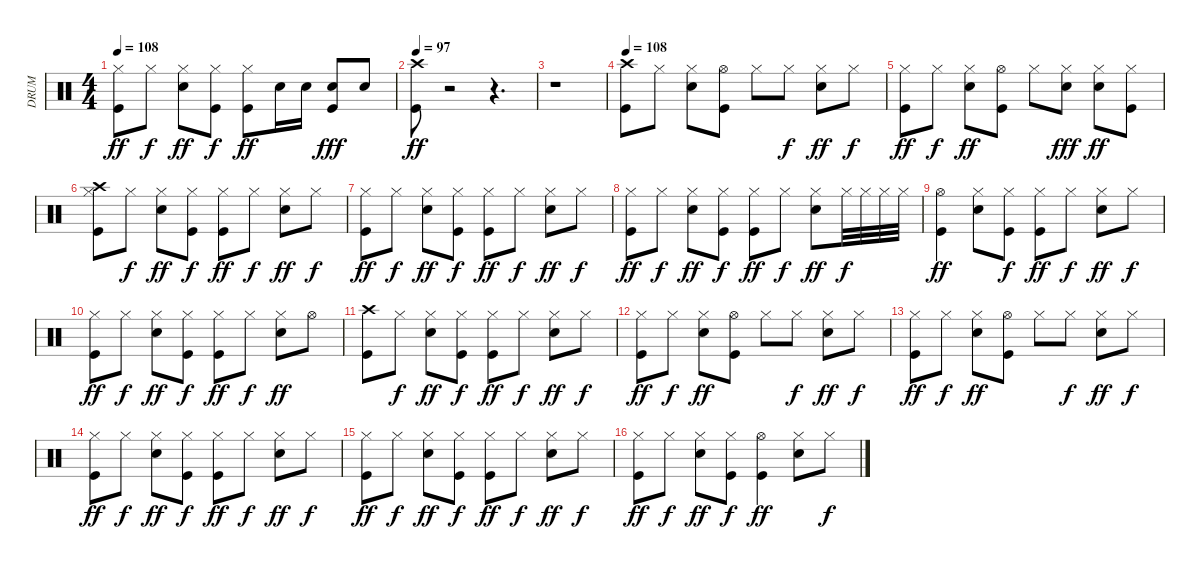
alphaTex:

\track ("DRUM" "DRUM") {instrument percussion}
\staff {score}
\articulation defaults
\ts (4 4)
\tempo 108
\clef neutral
\ks c
("Kick (hit)" "Hi-Hat (closed)").8{dy ff} "Hi-Hat (closed)".8{dy f} ("Electric Snare (hit)" "Hi-Hat (closed)").8{dy ff} ("Kick (hit)" "Hi-Hat (closed)").8{dy f} ("Kick (hit)" "Hi-Hat (closed)").8{dy ff} "Electric Snare (hit)".16 "Electric Snare (hit)".16 ("Kick (hit)" "Electric Snare (hit)").8{dy fff} "Electric Snare (hit)".8 |
\tempo 97
("Kick (hit)" "Crash high (hit)").8{dy ff} r.2 r.4{d} |
r.1 |
\tempo 108
("Kick (hit)" "Crash high (hit)").8 "Hi-Hat (closed)".8 ("Electric Snare (hit)" "Hi-Hat (closed)").8 ("Kick (hit)" "Hi-Hat (open)").8 "Hi-Hat (closed)".8 "Hi-Hat (closed)".8{dy f} ("Electric Snare (hit)" "Hi-Hat (closed)").8{dy ff} "Hi-Hat (closed)".8{dy f} |
("Kick (hit)" "Hi-Hat (closed)").8{dy ff} "Hi-Hat (closed)".8{dy f} ("Electric Snare (hit)" "Hi-Hat (closed)").8{dy ff} ("Kick (hit)" "Hi-Hat (open)").8 "Hi-Hat (closed)".8 ("Electric Snare (hit)" "Hi-Hat (closed)").8{dy fff} ("Electric Snare (hit)" "Hi-Hat (closed)").8{dy ff} ("Kick (hit)" "Hi-Hat (closed)").8 |
("Kick (hit)" "Hi-Hat (closed)" "Crash high (hit)").8 "Hi-Hat (closed)".8{dy f} ("Electric Snare (hit)" "Hi-Hat (closed)").8{dy ff} ("Kick (hit)" "Hi-Hat (closed)").8{dy f} ("Kick (hit)" "Hi-Hat (closed)").8{dy ff} "Hi-Hat (closed)".8{dy f} ("Electric Snare (hit)" "Hi-Hat (closed)").8{dy ff} "Hi-Hat (closed)".8{dy f} |
("Kick (hit)" "Hi-Hat (closed)").8{dy ff} "Hi-Hat (closed)".8{dy f} ("Electric Snare (hit)" "Hi-Hat (closed)").8{dy ff} ("Kick (hit)" "Hi-Hat (closed)").8{dy f} ("Kick (hit)" "Hi-Hat (closed)").8{dy ff} "Hi-Hat (closed)".8{dy f} ("Electric Snare (hit)" "Hi-Hat (closed)").8{dy ff} "Hi-Hat (closed)".8{dy f} |
("Kick (hit)" "Hi-Hat (closed)").8{dy ff} "Hi-Hat (closed)".8{dy f} ("Electric Snare (hit)" "Hi-Hat (closed)").8{dy ff} ("Kick (hit)" "Hi-Hat (closed)").8{dy f} ("Kick (hit)" "Hi-Hat (closed)").8{dy ff} "Hi-Hat (closed)".8{dy f} ("Electric Snare (hit)" "Hi-Hat (closed)").8{dy ff} "Hi-Hat (closed)".32{dy f} "Hi-Hat (closed)".32 "Hi-Hat (closed)".32 "Hi-Hat (closed)".32 |
("Kick (hit)" "Hi-Hat (open)").4{dy ff} ("Electric Snare (hit)" "Hi-Hat (closed)").8 ("Kick (hit)" "Hi-Hat (closed)").8{dy f} ("Kick (hit)" "Hi-Hat (closed)").8{dy ff} "Hi-Hat (closed)".8{dy f} ("Electric Snare (hit)" "Hi-Hat (closed)").8{dy ff} "Hi-Hat (closed)".8{dy f} |
("Kick (hit)" "Hi-Hat (closed)").8{dy ff} "Hi-Hat (closed)".8{dy f} ("Electric Snare (hit)" "Hi-Hat (closed)").8{dy ff} ("Kick (hit)" "Hi-Hat (closed)").8{dy f} ("Kick (hit)" "Hi-Hat (closed)").8{dy ff} "Hi-Hat (closed)".8{dy f} ("Electric Snare (hit)" "Hi-Hat (closed)").8{dy ff} "Hi-Hat (open)".8 |
("Kick (hit)" "Crash high (hit)").8 "Hi-Hat (closed)".8{dy f} ("Electric Snare (hit)" "Hi-Hat (closed)").8{dy ff} ("Kick (hit)" "Hi-Hat (closed)").8{dy f} ("Kick (hit)" "Hi-Hat (closed)").8{dy ff} "Hi-Hat (closed)".8{dy f} ("Electric Snare (hit)" "Hi-Hat (closed)").8{dy ff} "Hi-Hat (closed)".8{dy f} |
("Kick (hit)" "Hi-Hat (closed)").8{dy ff} "Hi-Hat (closed)".8{dy f} ("Electric Snare (hit)" "Hi-Hat (closed)").8{dy ff} ("Kick (hit)" "Hi-Hat (open)").8 "Hi-Hat (closed)".8 "Hi-Hat (closed)".8{dy f} ("Electric Snare (hit)" "Hi-Hat (closed)").8{dy ff} "Hi-Hat (closed)".8{dy f} |
("Kick (hit)" "Hi-Hat (closed)").8{dy ff} "Hi-Hat (closed)".8{dy f} ("Electric Snare (hit)" "Hi-Hat (closed)").8{dy ff} ("Kick (hit)" "Hi-Hat (open)").8 "Hi-Hat (closed)".8 "Hi-Hat (closed)".8{dy f} ("Electric Snare (hit)" "Hi-Hat (closed)").8{dy ff} "Hi-Hat (closed)".8{dy f} |
("Kick (hit)" "Hi-Hat (closed)").8{dy ff} "Hi-Hat (closed)".8{dy f} ("Electric Snare (hit)" "Hi-Hat (closed)").8{dy ff} ("Kick (hit)" "Hi-Hat (closed)").8{dy f} ("Kick (hit)" "Hi-Hat (closed)").8{dy ff} "Hi-Hat (closed)".8{dy f} ("Electric Snare (hit)" "Hi-Hat (closed)").8{dy ff} "Hi-Hat (closed)".8{dy f} |
("Kick (hit)" "Hi-Hat (closed)").8{dy ff} "Hi-Hat (closed)".8{dy f} ("Electric Snare (hit)" "Hi-Hat (closed)").8{dy ff} ("Kick (hit)" "Hi-Hat (closed)").8{dy f} ("Kick (hit)" "Hi-Hat (closed)").8{dy ff} "Hi-Hat (closed)".8{dy f} ("Electric Snare (hit)" "Hi-Hat (closed)").8{dy ff} "Hi-Hat (closed)".8{dy f} |
("Kick (hit)" "Hi-Hat (closed)").8{dy ff} "Hi-Hat (closed)".8{dy f} ("Electric Snare (hit)" "Hi-Hat (closed)").8{dy ff} ("Kick (hit)" "Hi-Hat (closed)").8{dy f} ("Kick (hit)" "Hi-Hat (open)").4{dy ff} ("Electric Snare (hit)" "Hi-Hat (closed)").8 "Hi-Hat (closed)".8{dy f}
